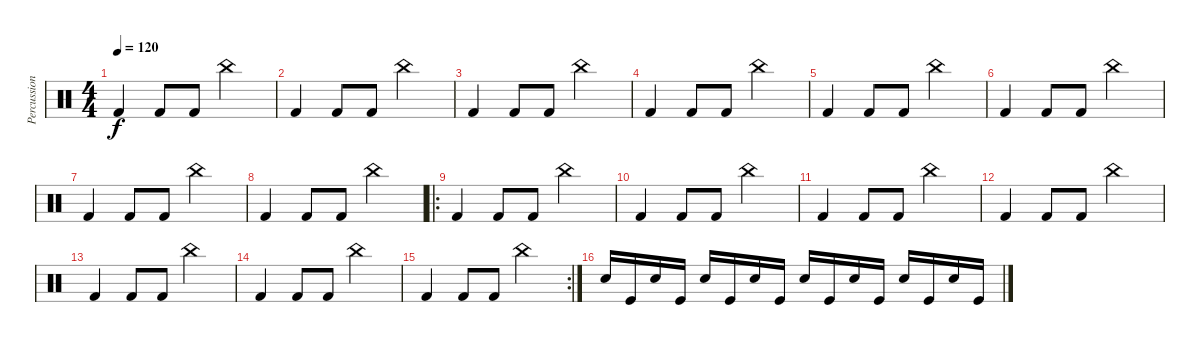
\track ("Percussion" "Percussion") {instrument percussion}
\staff {score}
\articulation defaults
\ts (4 4)
\tempo 120
\clef neutral
\ks c "Kick (hit) 2".4{dy f} "Kick (hit) 2".8 "Kick (hit) 2".8 "China (hit)".2
|
"Kick (hit) 2".4 "Kick (hit) 2".8 "Kick (hit) 2".8 "China (hit)".2 |
"Kick (hit) 2".4 "Kick (hit) 2".8 "Kick (hit) 2".8 "China (hit)".2 |
"Kick (hit) 2".4 "Kick (hit) 2".8 "Kick (hit) 2".8 "China (hit)".2 |
"Kick (hit) 2".4 "Kick (hit) 2".8 "Kick (hit) 2".8 "China (hit)".2 |
"Kick (hit) 2".4 "Kick (hit) 2".8 "Kick (hit) 2".8 "China (hit)".2 |
"Kick (hit) 2".4 "Kick (hit) 2".8 "Kick (hit) 2".8 "China (hit)".2 |
"Kick (hit) 2".4 "Kick (hit) 2".8 "Kick (hit) 2".8 "China (hit)".2 |
\ro "Kick (hit) 2".4 "Kick (hit) 2".8 "Kick (hit) 2".8 "China (hit)".2
|
"Kick (hit) 2".4 "Kick (hit) 2".8 "Kick (hit) 2".8 "China (hit)".2 |
"Kick (hit) 2".4 "Kick (hit) 2".8 "Kick (hit) 2".8 "China (hit)".2 |
"Kick (hit) 2".4 "Kick (hit) 2".8 "Kick (hit) 2".8 "China (hit)".2 |
"Kick (hit) 2".4 "Kick (hit) 2".8 "Kick (hit) 2".8 "China (hit)".2 |
"Kick (hit) 2".4 "Kick (hit) 2".8 "Kick (hit) 2".8 "China (hit)".2 |
\rc 2 "Kick (hit) 2".4 "Kick (hit) 2".8 "Kick (hit) 2".8 "China (hit)".2
|
"Electric Snare (hit)".16 "Kick (hit)".16 "Electric Snare (hit)".16 "Kick (hit)".16 "Electric Snare (hit)".16 "Kick (hit)".16 "Electric Snare (hit)".16 "Kick (hit)".16 "Electric Snare (hit)".16 "Kick (hit)".16 "Electric Snare (hit)".16 "Kick (hit)".16 "Electric Snare (hit)".16 "Kick (hit)".16 "Electric Snare (hit)".16 "Kick (hit)".16
